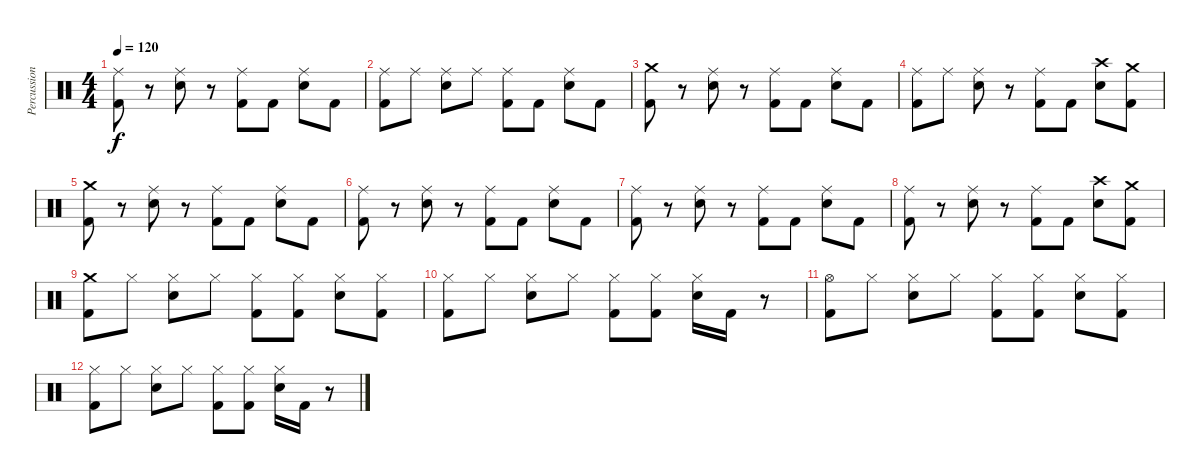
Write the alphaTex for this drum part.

\track ("Percussion" "Percussion") {instrument percussion}
\staff {score}
\articulation defaults
\ts (4 4)
\tempo 120
\clef neutral
\ks c
("Ride (middle)" "Kick (hit) 2").8{dy f} r.8 ("Ride (middle)" "Electric Snare (hit)").8 r.8 ("Ride (middle)" "Kick (hit) 2").8 "Kick (hit) 2".8 ("Ride (middle)" "Electric Snare (hit)").8 "Kick (hit) 2".8 |
("Ride (middle)" "Kick (hit) 2").8 "Ride (middle)".8 ("Ride (middle)" "Electric Snare (hit)").8 "Ride (middle)".8 ("Ride (middle)" "Kick (hit) 2").8 "Kick (hit) 2".8 ("Ride (middle)" "Electric Snare (hit)").8 "Kick (hit) 2".8 |
("Crash medium (hit)" "Kick (hit) 2").8 r.8 ("Ride (middle)" "Electric Snare (hit)").8 r.8 ("Ride (middle)" "Kick (hit) 2").8 "Kick (hit) 2".8 ("Ride (middle)" "Electric Snare (hit)").8 "Kick (hit) 2".8 |
("Ride (middle)" "Kick (hit) 2").8 "Ride (middle)".8 ("Ride (middle)" "Electric Snare (hit)").8 r.8 ("Ride (middle)" "Kick (hit) 2").8 "Kick (hit) 2".8 ("Crash high (hit)" "Electric Snare (hit)").8 ("Crash medium (hit)" "Kick (hit) 2").8 |
("Crash medium (hit)" "Kick (hit) 2").8 r.8 ("Ride (middle)" "Electric Snare (hit)").8 r.8 ("Ride (middle)" "Kick (hit) 2").8 "Kick (hit) 2".8 ("Ride (middle)" "Electric Snare (hit)").8 "Kick (hit) 2".8 |
("Ride (middle)" "Kick (hit) 2").8 r.8 ("Ride (middle)" "Electric Snare (hit)").8 r.8 ("Ride (middle)" "Kick (hit) 2").8 "Kick (hit) 2".8 ("Ride (middle)" "Electric Snare (hit)").8 "Kick (hit) 2".8 |
("Ride (middle)" "Kick (hit) 2").8 r.8 ("Ride (middle)" "Electric Snare (hit)").8 r.8 ("Ride (middle)" "Kick (hit) 2").8 "Kick (hit) 2".8 ("Ride (middle)" "Electric Snare (hit)").8 "Kick (hit) 2".8 |
("Ride (middle)" "Kick (hit) 2").8 r.8 ("Ride (middle)" "Electric Snare (hit)").8 r.8 ("Ride (middle)" "Kick (hit) 2").8 "Kick (hit) 2".8 ("Crash high (hit)" "Electric Snare (hit)").8 ("Crash medium (hit)" "Kick (hit) 2").8 |
("Crash medium (hit)" "Kick (hit) 2").8 "Hi-Hat (closed)".8 ("Hi-Hat (closed)" "Electric Snare (hit)").8 "Hi-Hat (closed)".8 ("Hi-Hat (closed)" "Kick (hit) 2").8 ("Hi-Hat (closed)" "Kick (hit) 2").8 ("Hi-Hat (closed)" "Electric Snare (hit)").8 ("Hi-Hat (closed)" "Kick (hit) 2").8 |
("Hi-Hat (closed)" "Kick (hit) 2").8 "Hi-Hat (closed)".8 ("Hi-Hat (closed)" "Electric Snare (hit)").8 "Hi-Hat (closed)".8 ("Hi-Hat (closed)" "Kick (hit) 2").8 ("Hi-Hat (closed)" "Kick (hit) 2").8 ("Hi-Hat (closed)" "Electric Snare (hit)").16 "Kick (hit) 2".16 r.8 |
("Hi-Hat (open)" "Kick (hit) 2").8 "Hi-Hat (closed)".8 ("Hi-Hat (closed)" "Electric Snare (hit)").8 "Hi-Hat (closed)".8 ("Hi-Hat (closed)" "Kick (hit) 2").8 ("Hi-Hat (closed)" "Kick (hit) 2").8 ("Hi-Hat (closed)" "Electric Snare (hit)").8 ("Hi-Hat (closed)" "Kick (hit) 2").8 |
("Hi-Hat (closed)" "Kick (hit) 2").8 "Hi-Hat (closed)".8 ("Hi-Hat (closed)" "Electric Snare (hit)").8 "Hi-Hat (closed)".8 ("Hi-Hat (closed)" "Kick (hit) 2").8 ("Hi-Hat (closed)" "Kick (hit) 2").8 ("Hi-Hat (closed)" "Electric Snare (hit)").16 "Kick (hit) 2".16 r.8
